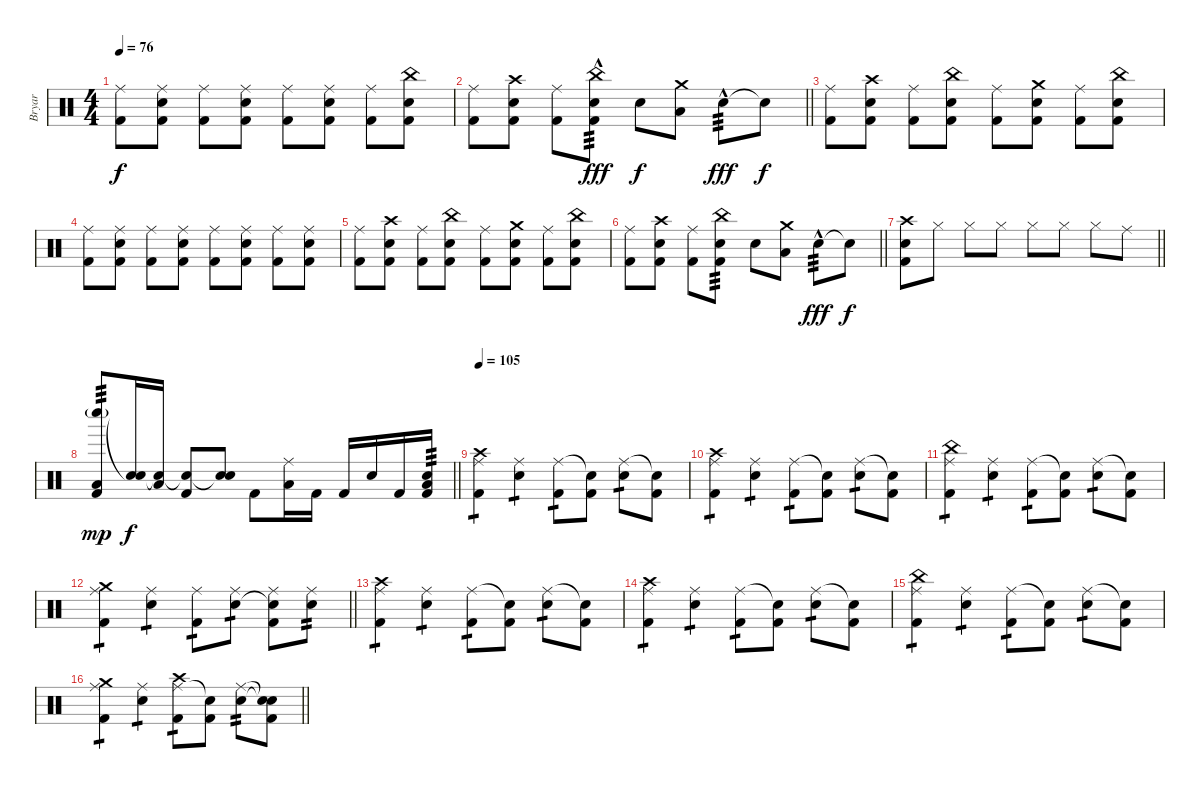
\track ("Bryar" "Bryar") {instrument percussion}
\staff {score}
\articulation defaults
\ts (4 4)
\tempo 76
\clef neutral
\ks c
("Ride (middle)" "Kick (hit) 2").8{dy f} ("Ride (middle)" "Electric Snare (hit)" "Kick (hit) 2").8 ("Ride (middle)" "Kick (hit) 2").8 ("Ride (middle)" "Electric Snare (hit)" "Kick (hit) 2").8 ("Ride (middle)" "Kick (hit) 2").8 ("Ride (middle)" "Electric Snare (hit)" "Kick (hit) 2").8 ("Ride (middle)" "Kick (hit) 2").8 ("China (hit)" "Electric Snare (hit)" "Kick (hit) 2").8 |
\barLineRight lightlight
("Ride (middle)" "Kick (hit) 2").8 ("Crash high (hit)" "Electric Snare (hit)" "Kick (hit) 2").8 ("Ride (middle)" "Kick (hit) 2").8 ("China (hit)" "Electric Snare (hit)"{hac} "Kick (hit) 2").8{tp 3 dy fff} "Electric Snare (hit)".8{dy f} ("Crash medium (hit)" "Low Tom (hit)").8 "Electric Snare (hit)"{hac}.8{tp 3 dy fff} "Electric Snare (hit)"{t}.8{dy f} |
("Ride (middle)" "Kick (hit) 2").8 ("Crash high (hit)" "Electric Snare (hit)" "Kick (hit) 2").8 ("Ride (middle)" "Kick (hit) 2").8 ("China (hit)" "Electric Snare (hit)" "Kick (hit) 2").8 ("Ride (middle)" "Kick (hit) 2").8 ("Crash medium (hit)" "Electric Snare (hit)" "Kick (hit) 2").8 ("Ride (middle)" "Kick (hit) 2").8 ("China (hit)" "Electric Snare (hit)" "Kick (hit) 2").8 |
("Ride (middle)" "Kick (hit) 2").8 ("Ride (middle)" "Electric Snare (hit)" "Kick (hit) 2").8 ("Ride (middle)" "Kick (hit) 2").8 ("Ride (middle)" "Electric Snare (hit)" "Kick (hit) 2").8 ("Ride (middle)" "Kick (hit) 2").8 ("Ride (middle)" "Electric Snare (hit)" "Kick (hit) 2").8 ("Ride (middle)" "Kick (hit) 2").8 ("Ride (middle)" "Electric Snare (hit)" "Kick (hit) 2").8 |
("Ride (middle)" "Kick (hit) 2").8 ("Crash high (hit)" "Electric Snare (hit)" "Kick (hit) 2").8 ("Ride (middle)" "Kick (hit) 2").8 ("China (hit)" "Electric Snare (hit)" "Kick (hit) 2").8 ("Ride (middle)" "Kick (hit) 2").8 ("Crash medium (hit)" "Electric Snare (hit)" "Kick (hit) 2").8 ("Ride (middle)" "Kick (hit) 2").8 ("China (hit)" "Electric Snare (hit)" "Kick (hit) 2").8 |
\barLineRight lightlight
("Ride (middle)" "Kick (hit) 2").8 ("Crash high (hit)" "Electric Snare (hit)" "Kick (hit) 2").8 ("Ride (middle)" "Kick (hit) 2").8 ("China (hit)" "Electric Snare (hit)" "Kick (hit) 2").8{tp 3} "Electric Snare (hit)".8 ("Crash medium (hit)" "Low Tom (hit)").8 "Electric Snare (hit)"{hac}.8{tp 3 dy fff} "Electric Snare (hit)"{t}.8{dy f} |
\barLineRight lightlight
("Crash high (hit)" "Electric Snare (hit)" "Kick (hit) 2").8 "Hi-Hat (closed)".8 "Hi-Hat (closed)".8 "Hi-Hat (closed)".8 "Hi-Hat (closed)".8 "Hi-Hat (closed)".8 "Hi-Hat (closed)".8 "Ride (middle)".8 |
\barLineRight lightlight
("Whistle low (hit)"{g} "Low Floor Tom (hit)" "Kick (hit) 2").8{tp 3 dy mp} ("Snare (hit)"{t} "Electric Snare (hit)").16{dy f} ("Snare (hit)"{t} "Low Tom (hit)").16 ("Snare (hit)"{t} "Kick (hit) 2").8 ("Snare (hit)"{t} "Electric Snare (hit)").8 "Kick (hit) 2".8 ("Ride (middle)" "Low Floor Tom (hit)").16 "Kick (hit) 2".16 "Kick (hit) 2".16 "Electric Snare (hit)".16 "Kick (hit) 2".16 ("Electric Snare (hit)" "Low Tom (hit)" "Kick (hit) 2").16{tp 3} |
\tempo 105
("Ride (middle)" "Crash high (hit)" "Kick (hit) 2").4{tp 1} ("Ride (middle)" "Electric Snare (hit)").4{tp 1} ("Ride (middle)" "Kick (hit) 2").8{tp 1} ("Snare (hit)"{t} "Kick (hit) 2").8 ("Ride (middle)" "Electric Snare (hit)").8{tp 1} ("Snare (hit)"{t} "Kick (hit) 2").8 |
("Ride (middle)" "Crash high (hit)" "Kick (hit) 2").4{tp 1} ("Ride (middle)" "Electric Snare (hit)").4{tp 1} ("Ride (middle)" "Kick (hit) 2").8{tp 1} ("Snare (hit)"{t} "Kick (hit) 2").8 ("Ride (middle)" "Electric Snare (hit)").8{tp 1} ("Snare (hit)"{t} "Kick (hit) 2").8 |
("Ride (middle)" "China (hit)" "Kick (hit) 2").4{tp 1} ("Ride (middle)" "Electric Snare (hit)").4{tp 1} ("Ride (middle)" "Kick (hit) 2").8{tp 1} ("Snare (hit)"{t} "Kick (hit) 2").8 ("Ride (middle)" "Electric Snare (hit)").8{tp 1} ("Snare (hit)"{t} "Kick (hit) 2").8 |
\barLineRight lightlight
("Ride (middle)" "Crash medium (hit)" "Kick (hit) 2").4{tp 1} ("Ride (middle)" "Electric Snare (hit)").4{tp 1} ("Ride (middle)" "Kick (hit) 2").8{tp 1} ("Ride (middle)" "Electric Snare (hit)").8{tp 1} ("Ride (middle)" "Electric Snare (hit)"{t} "Kick (hit) 2").8 ("Ride (middle)" "Electric Snare (hit)").8{tp 2} |
("Ride (middle)" "Crash high (hit)" "Kick (hit) 2").4{tp 1} ("Ride (middle)" "Electric Snare (hit)").4{tp 1} ("Ride (middle)" "Kick (hit) 2").8{tp 1} ("Snare (hit)"{t} "Kick (hit) 2").8 ("Ride (middle)" "Electric Snare (hit)").8{tp 1} ("Snare (hit)"{t} "Kick (hit) 2").8 |
("Ride (middle)" "Crash high (hit)" "Kick (hit) 2").4{tp 1} ("Ride (middle)" "Electric Snare (hit)").4{tp 1} ("Ride (middle)" "Kick (hit) 2").8{tp 1} ("Snare (hit)"{t} "Kick (hit) 2").8 ("Ride (middle)" "Electric Snare (hit)").8{tp 1} ("Snare (hit)"{t} "Kick (hit) 2").8 |
("Ride (middle)" "China (hit)" "Kick (hit) 2").4{tp 1} ("Ride (middle)" "Electric Snare (hit)").4{tp 1} ("Ride (middle)" "Kick (hit) 2").8{tp 1} ("Snare (hit)"{t} "Kick (hit) 2").8 ("Ride (middle)" "Electric Snare (hit)").8{tp 1} ("Snare (hit)"{t} "Kick (hit) 2").8 |
\barLineRight lightlight
("Ride (middle)" "Crash medium (hit)" "Kick (hit) 2").4{tp 1} ("Ride (middle)" "Electric Snare (hit)").4{tp 1} ("Ride (middle)" "Crash high (hit)" "Kick (hit) 2").8{tp 1} ("Snare (hit)"{t} "Kick (hit) 2").8 ("Ride (middle)" "Electric Snare (hit)").8{tp 2} ("Snare (hit)"{t} "Electric Snare (hit)"{t} "Kick (hit) 2").8
